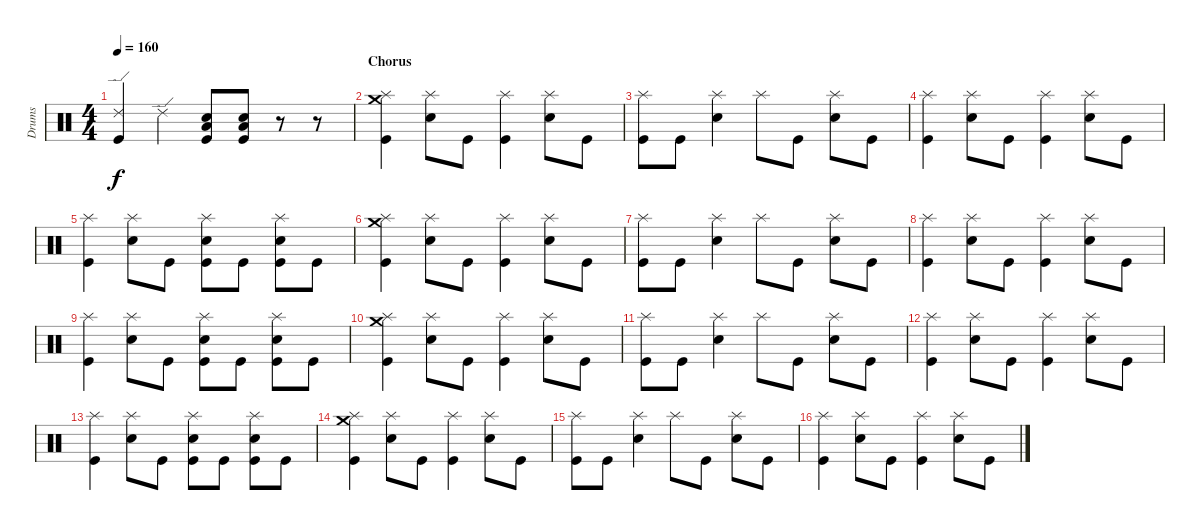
\track ("Drums" "Drums") {instrument percussion}
\staff {score}
\articulation defaults
\ts (4 4)
\tempo 160
\clef neutral
\ks c
("Ride (edge) 2" "Kick (hit)").4{dy f} "Ride (edge) 2".4 ("Electric Snare (hit)" "Low Floor Tom (hit)" "Kick (hit)").8 ("Electric Snare (hit)" "Low Floor Tom (hit)" "Kick (hit)").8 r.8 r.8 |
\section ("" "Chorus")
("Crash medium (hit)" "Splash (hit)" "Kick (hit)").4 ("Splash (hit)" "Electric Snare (hit)").8 "Kick (hit)".8 ("Splash (hit)" "Kick (hit)").4 ("Splash (hit)" "Electric Snare (hit)").8 "Kick (hit)".8 |
("Splash (hit)" "Kick (hit)").8 "Kick (hit)".8 ("Splash (hit)" "Electric Snare (hit)").4 "Splash (hit)".8 "Kick (hit)".8 ("Splash (hit)" "Electric Snare (hit)").8 "Kick (hit)".8 |
("Splash (hit)" "Kick (hit)").4 ("Splash (hit)" "Electric Snare (hit)").8 "Kick (hit)".8 ("Splash (hit)" "Kick (hit)").4 ("Splash (hit)" "Electric Snare (hit)").8 "Kick (hit)".8 |
("Splash (hit)" "Kick (hit)").4 ("Splash (hit)" "Electric Snare (hit)").8 "Kick (hit)".8 ("Splash (hit)" "Electric Snare (hit)" "Kick (hit)").8 "Kick (hit)".8 ("Splash (hit)" "Electric Snare (hit)" "Kick (hit)").8 "Kick (hit)".8 |
("Crash medium (hit)" "Splash (hit)" "Kick (hit)").4 ("Splash (hit)" "Electric Snare (hit)").8 "Kick (hit)".8 ("Splash (hit)" "Kick (hit)").4 ("Splash (hit)" "Electric Snare (hit)").8 "Kick (hit)".8 |
("Splash (hit)" "Kick (hit)").8 "Kick (hit)".8 ("Splash (hit)" "Electric Snare (hit)").4 "Splash (hit)".8 "Kick (hit)".8 ("Splash (hit)" "Electric Snare (hit)").8 "Kick (hit)".8 |
("Splash (hit)" "Kick (hit)").4 ("Splash (hit)" "Electric Snare (hit)").8 "Kick (hit)".8 ("Splash (hit)" "Kick (hit)").4 ("Splash (hit)" "Electric Snare (hit)").8 "Kick (hit)".8 |
("Splash (hit)" "Kick (hit)").4 ("Splash (hit)" "Electric Snare (hit)").8 "Kick (hit)".8 ("Splash (hit)" "Electric Snare (hit)" "Kick (hit)").8 "Kick (hit)".8 ("Splash (hit)" "Electric Snare (hit)" "Kick (hit)").8 "Kick (hit)".8 |
("Crash medium (hit)" "Splash (hit)" "Kick (hit)").4 ("Splash (hit)" "Electric Snare (hit)").8 "Kick (hit)".8 ("Splash (hit)" "Kick (hit)").4 ("Splash (hit)" "Electric Snare (hit)").8 "Kick (hit)".8 |
("Splash (hit)" "Kick (hit)").8 "Kick (hit)".8 ("Splash (hit)" "Electric Snare (hit)").4 "Splash (hit)".8 "Kick (hit)".8 ("Splash (hit)" "Electric Snare (hit)").8 "Kick (hit)".8 |
("Splash (hit)" "Kick (hit)").4 ("Splash (hit)" "Electric Snare (hit)").8 "Kick (hit)".8 ("Splash (hit)" "Kick (hit)").4 ("Splash (hit)" "Electric Snare (hit)").8 "Kick (hit)".8 |
("Splash (hit)" "Kick (hit)").4 ("Splash (hit)" "Electric Snare (hit)").8 "Kick (hit)".8 ("Splash (hit)" "Electric Snare (hit)" "Kick (hit)").8 "Kick (hit)".8 ("Splash (hit)" "Electric Snare (hit)" "Kick (hit)").8 "Kick (hit)".8 |
("Crash medium (hit)" "Splash (hit)" "Kick (hit)").4 ("Splash (hit)" "Electric Snare (hit)").8 "Kick (hit)".8 ("Splash (hit)" "Kick (hit)").4 ("Splash (hit)" "Electric Snare (hit)").8 "Kick (hit)".8 |
("Splash (hit)" "Kick (hit)").8 "Kick (hit)".8 ("Splash (hit)" "Electric Snare (hit)").4 "Splash (hit)".8 "Kick (hit)".8 ("Splash (hit)" "Electric Snare (hit)").8 "Kick (hit)".8 |
("Splash (hit)" "Kick (hit)").4 ("Splash (hit)" "Electric Snare (hit)").8 "Kick (hit)".8 ("Splash (hit)" "Kick (hit)").4 ("Splash (hit)" "Electric Snare (hit)").8 "Kick (hit)".8
